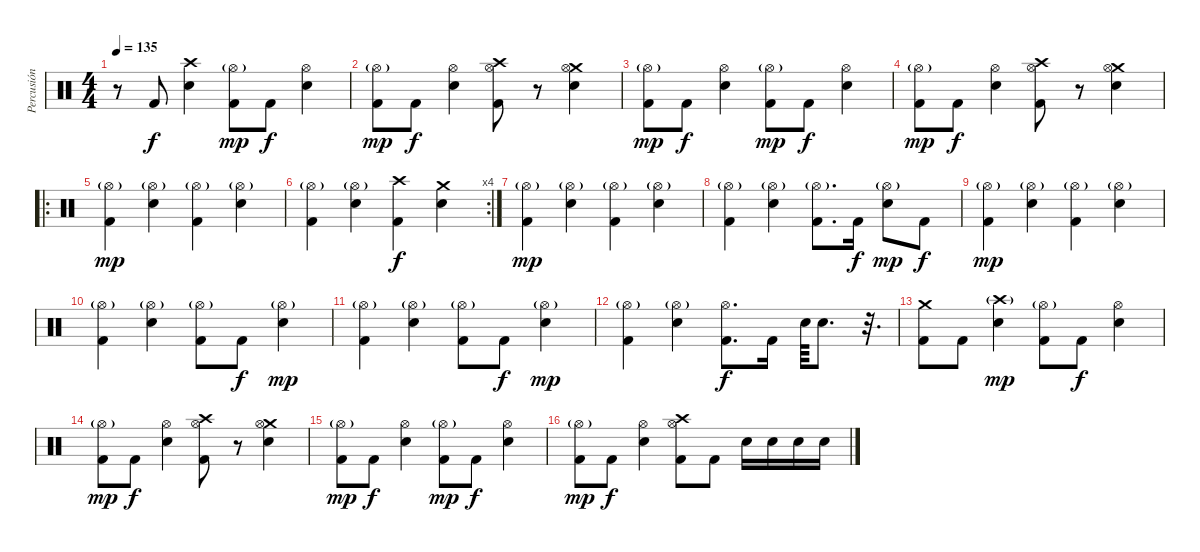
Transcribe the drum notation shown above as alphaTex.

\track ("Percusión" "Percusión") {instrument percussion}
\staff {score}
\articulation defaults
\ts (4 4)
\tempo 135
\clef neutral
\ks c
r.8{dy f} "Kick (hit) 2".8 ("Crash high (hit)" "Snare (hit) 2").4 ("Hi-Hat (open)"{g} "Kick (hit) 2").8{dy mp} "Kick (hit) 2".8{dy f} ("Hi-Hat (open)" "Snare (hit) 2").4 |
("Hi-Hat (open)"{g} "Kick (hit) 2").8{dy mp} "Kick (hit) 2".8{dy f} ("Hi-Hat (open)" "Snare (hit) 2").4 ("Crash high (hit)" "Hi-Hat (open)" "Kick (hit) 2").8 r.8 ("Crash medium (hit)" "Hi-Hat (open)" "Snare (hit) 2").4 |
("Hi-Hat (open)"{g} "Kick (hit) 2").8{dy mp} "Kick (hit) 2".8{dy f} ("Hi-Hat (open)" "Snare (hit) 2").4 ("Hi-Hat (open)"{g} "Kick (hit) 2").8{dy mp} "Kick (hit) 2".8{dy f} ("Hi-Hat (open)" "Snare (hit) 2").4 |
("Hi-Hat (open)"{g} "Kick (hit) 2").8{dy mp} "Kick (hit) 2".8{dy f} ("Hi-Hat (open)" "Snare (hit) 2").4 ("Crash high (hit)" "Hi-Hat (open)" "Kick (hit) 2").8 r.8 ("Crash medium (hit)" "Hi-Hat (open)" "Snare (hit) 2").4 |
\ro
("Hi-Hat (open)"{g} "Kick (hit) 2").4{dy mp} ("Hi-Hat (open)"{g} "Snare (hit) 2").4 ("Hi-Hat (open)"{g} "Kick (hit) 2").4 ("Hi-Hat (open)"{g} "Snare (hit) 2").4 |
\rc 4
("Hi-Hat (open)"{g} "Kick (hit) 2").4 ("Hi-Hat (open)"{g} "Snare (hit) 2").4 ("Crash high (hit)" "Kick (hit) 2").4{dy f} ("Crash medium (hit)" "Snare (hit) 2").4 |
("Hi-Hat (open)"{g} "Kick (hit) 2").4{dy mp} ("Hi-Hat (open)"{g} "Snare (hit) 2").4 ("Hi-Hat (open)"{g} "Kick (hit) 2").4 ("Hi-Hat (open)"{g} "Snare (hit) 2").4 |
("Hi-Hat (open)"{g} "Kick (hit) 2").4 ("Hi-Hat (open)"{g} "Snare (hit) 2").4 ("Hi-Hat (open)"{g} "Kick (hit) 2").8{d} "Kick (hit) 2".16{dy f} ("Hi-Hat (open)"{g} "Snare (hit) 2").8{dy mp} "Kick (hit) 2".8{dy f} |
("Hi-Hat (open)"{g} "Kick (hit) 2").4{dy mp} ("Hi-Hat (open)"{g} "Snare (hit) 2").4 ("Hi-Hat (open)"{g} "Kick (hit) 2").4 ("Hi-Hat (open)"{g} "Snare (hit) 2").4 |
("Hi-Hat (open)"{g} "Kick (hit) 2").4 ("Hi-Hat (open)"{g} "Snare (hit) 2").4 ("Hi-Hat (open)"{g} "Kick (hit) 2").8 "Kick (hit) 2".8{dy f} ("Hi-Hat (open)"{g} "Snare (hit) 2").4{dy mp} |
("Hi-Hat (open)"{g} "Kick (hit) 2").4 ("Hi-Hat (open)"{g} "Snare (hit) 2").4 ("Hi-Hat (open)"{g} "Kick (hit) 2").8 "Kick (hit) 2".8{dy f} ("Hi-Hat (open)"{g} "Snare (hit) 2").4{dy mp} |
("Hi-Hat (open)"{g} "Kick (hit) 2").4 ("Hi-Hat (open)"{g} "Snare (hit) 2").4 ("Hi-Hat (open)" "Kick (hit) 2").8{d dy f} "Kick (hit) 2".16 "Snare (hit) 2".64 "Snare (hit) 2".8{d} r.32{d} |
("Crash medium (hit)" "Kick (hit) 2").8 "Kick (hit) 2".8 ("Crash high (hit)"{g} "Snare (hit) 2").4{dy mp} ("Hi-Hat (open)"{g} "Kick (hit) 2").8 "Kick (hit) 2".8{dy f} ("Hi-Hat (open)" "Snare (hit) 2").4 |
("Hi-Hat (open)"{g} "Kick (hit) 2").8{dy mp} "Kick (hit) 2".8{dy f} ("Hi-Hat (open)" "Snare (hit) 2").4 ("Crash high (hit)" "Hi-Hat (open)" "Kick (hit) 2").8 r.8 ("Crash medium (hit)" "Hi-Hat (open)" "Snare (hit) 2").4 |
("Hi-Hat (open)"{g} "Kick (hit) 2").8{dy mp} "Kick (hit) 2".8{dy f} ("Hi-Hat (open)" "Snare (hit) 2").4 ("Hi-Hat (open)"{g} "Kick (hit) 2").8{dy mp} "Kick (hit) 2".8{dy f} ("Hi-Hat (open)" "Snare (hit) 2").4 |
("Hi-Hat (open)"{g} "Kick (hit) 2").8{dy mp} "Kick (hit) 2".8{dy f} ("Hi-Hat (open)" "Snare (hit) 2").4 ("Crash high (hit)" "Hi-Hat (open)" "Kick (hit) 2").8 "Kick (hit) 2".8 "Snare (hit) 2".16 "Snare (hit) 2".16 "Snare (hit) 2".16 "Snare (hit) 2".16
